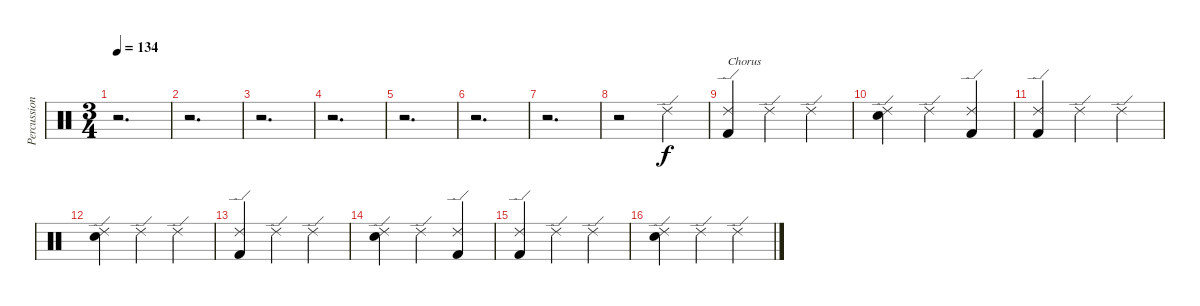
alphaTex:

\track ("Percussion" "Percussion") {instrument percussion}
\staff {score}
\articulation defaults
\ts (3 4)
\tempo 134
\clef neutral
\ks c
r.2{d dy f} |
r.2{d} |
r.2{d} |
r.2{d} |
r.2{d} |
r.2{d} |
r.2{d} |
r.2 "Ride (edge) 2".4 |
("Kick (hit) 2" "Ride (edge) 2").4{txt "Chorus"} "Ride (edge) 2".4 "Ride (edge) 2".4 |
("Snare (hit) 2" "Ride (edge) 2").4 "Ride (edge) 2".4 ("Kick (hit) 2" "Ride (edge) 2").4 |
("Kick (hit) 2" "Ride (edge) 2").4 "Ride (edge) 2".4 "Ride (edge) 2".4 |
("Snare (hit) 2" "Ride (edge) 2").4 "Ride (edge) 2".4 "Ride (edge) 2".4 |
("Kick (hit) 2" "Ride (edge) 2").4 "Ride (edge) 2".4 "Ride (edge) 2".4 |
("Snare (hit) 2" "Ride (edge) 2").4 "Ride (edge) 2".4 ("Kick (hit) 2" "Ride (edge) 2").4 |
("Kick (hit) 2" "Ride (edge) 2").4 "Ride (edge) 2".4 "Ride (edge) 2".4 |
("Snare (hit) 2" "Ride (edge) 2").4 "Ride (edge) 2".4 "Ride (edge) 2".4
